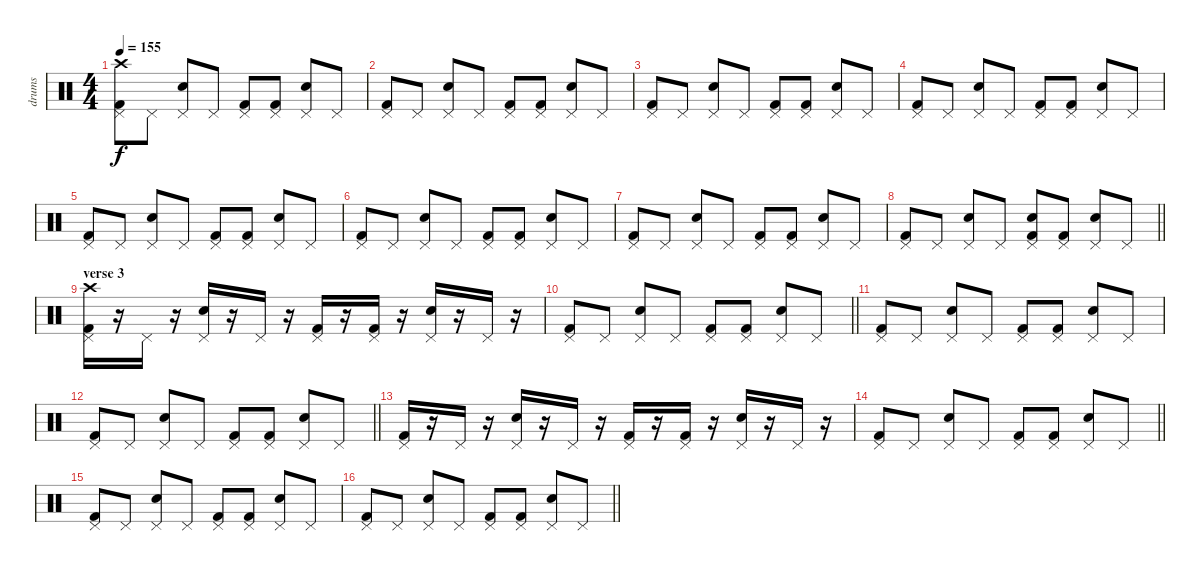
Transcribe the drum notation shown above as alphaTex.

\track ("drums" "drums") {instrument percussion}
\staff {score}
\articulation defaults
\ts (4 4)
\tempo 155
\clef neutral
\ks c
("Kick (hit) 2" "Pedal Hi-Hat (hit)" "Crash high (hit)").8{dy f} "Pedal Hi-Hat (hit)".8 ("Electric Snare (hit)" "Pedal Hi-Hat (hit)").8 "Pedal Hi-Hat (hit)".8 ("Kick (hit) 2" "Pedal Hi-Hat (hit)").8 ("Kick (hit) 2" "Pedal Hi-Hat (hit)").8 ("Electric Snare (hit)" "Pedal Hi-Hat (hit)").8 "Pedal Hi-Hat (hit)".8 |
("Kick (hit) 2" "Pedal Hi-Hat (hit)").8 "Pedal Hi-Hat (hit)".8 ("Electric Snare (hit)" "Pedal Hi-Hat (hit)").8 "Pedal Hi-Hat (hit)".8 ("Kick (hit) 2" "Pedal Hi-Hat (hit)").8 ("Kick (hit) 2" "Pedal Hi-Hat (hit)").8 ("Electric Snare (hit)" "Pedal Hi-Hat (hit)").8 "Pedal Hi-Hat (hit)".8 |
("Kick (hit) 2" "Pedal Hi-Hat (hit)").8 "Pedal Hi-Hat (hit)".8 ("Electric Snare (hit)" "Pedal Hi-Hat (hit)").8 "Pedal Hi-Hat (hit)".8 ("Kick (hit) 2" "Pedal Hi-Hat (hit)").8 ("Kick (hit) 2" "Pedal Hi-Hat (hit)").8 ("Electric Snare (hit)" "Pedal Hi-Hat (hit)").8 "Pedal Hi-Hat (hit)".8 |
("Kick (hit) 2" "Pedal Hi-Hat (hit)").8 "Pedal Hi-Hat (hit)".8 ("Electric Snare (hit)" "Pedal Hi-Hat (hit)").8 "Pedal Hi-Hat (hit)".8 ("Kick (hit) 2" "Pedal Hi-Hat (hit)").8 ("Kick (hit) 2" "Pedal Hi-Hat (hit)").8 ("Electric Snare (hit)" "Pedal Hi-Hat (hit)").8 "Pedal Hi-Hat (hit)".8 |
("Kick (hit) 2" "Pedal Hi-Hat (hit)").8 "Pedal Hi-Hat (hit)".8 ("Electric Snare (hit)" "Pedal Hi-Hat (hit)").8 "Pedal Hi-Hat (hit)".8 ("Kick (hit) 2" "Pedal Hi-Hat (hit)").8 ("Kick (hit) 2" "Pedal Hi-Hat (hit)").8 ("Electric Snare (hit)" "Pedal Hi-Hat (hit)").8 "Pedal Hi-Hat (hit)".8 |
("Kick (hit) 2" "Pedal Hi-Hat (hit)").8 "Pedal Hi-Hat (hit)".8 ("Electric Snare (hit)" "Pedal Hi-Hat (hit)").8 "Pedal Hi-Hat (hit)".8 ("Kick (hit) 2" "Pedal Hi-Hat (hit)").8 ("Kick (hit) 2" "Pedal Hi-Hat (hit)").8 ("Electric Snare (hit)" "Pedal Hi-Hat (hit)").8 "Pedal Hi-Hat (hit)".8 |
("Kick (hit) 2" "Pedal Hi-Hat (hit)").8 "Pedal Hi-Hat (hit)".8 ("Electric Snare (hit)" "Pedal Hi-Hat (hit)").8 "Pedal Hi-Hat (hit)".8 ("Kick (hit) 2" "Pedal Hi-Hat (hit)").8 ("Kick (hit) 2" "Pedal Hi-Hat (hit)").8 ("Electric Snare (hit)" "Pedal Hi-Hat (hit)").8 "Pedal Hi-Hat (hit)".8 |
\barLineRight lightlight
("Kick (hit) 2" "Pedal Hi-Hat (hit)").8 "Pedal Hi-Hat (hit)".8 ("Electric Snare (hit)" "Pedal Hi-Hat (hit)").8 "Pedal Hi-Hat (hit)".8 ("Kick (hit) 2" "Electric Snare (hit)" "Pedal Hi-Hat (hit)").8 ("Kick (hit) 2" "Pedal Hi-Hat (hit)").8 ("Electric Snare (hit)" "Pedal Hi-Hat (hit)").8 "Pedal Hi-Hat (hit)".8 |
\section ("" "verse 3")
("Kick (hit) 2" "Pedal Hi-Hat (hit)" "Crash high (hit)").16 r.16 "Pedal Hi-Hat (hit)".16 r.16 ("Electric Snare (hit)" "Pedal Hi-Hat (hit)").16 r.16 "Pedal Hi-Hat (hit)".16 r.16 ("Kick (hit) 2" "Pedal Hi-Hat (hit)").16 r.16 ("Kick (hit) 2" "Pedal Hi-Hat (hit)").16 r.16 ("Electric Snare (hit)" "Pedal Hi-Hat (hit)").16 r.16 "Pedal Hi-Hat (hit)".16 r.16 |
\barLineRight lightlight
("Kick (hit) 2" "Pedal Hi-Hat (hit)").8 "Pedal Hi-Hat (hit)".8 ("Electric Snare (hit)" "Pedal Hi-Hat (hit)").8 "Pedal Hi-Hat (hit)".8 ("Kick (hit) 2" "Pedal Hi-Hat (hit)").8 ("Kick (hit) 2" "Pedal Hi-Hat (hit)").8 ("Electric Snare (hit)" "Pedal Hi-Hat (hit)").8 "Pedal Hi-Hat (hit)".8 |
("Kick (hit) 2" "Pedal Hi-Hat (hit)").8 "Pedal Hi-Hat (hit)".8 ("Electric Snare (hit)" "Pedal Hi-Hat (hit)").8 "Pedal Hi-Hat (hit)".8 ("Kick (hit) 2" "Pedal Hi-Hat (hit)").8 ("Kick (hit) 2" "Pedal Hi-Hat (hit)").8 ("Electric Snare (hit)" "Pedal Hi-Hat (hit)").8 "Pedal Hi-Hat (hit)".8 |
\barLineRight lightlight
("Kick (hit) 2" "Pedal Hi-Hat (hit)").8 "Pedal Hi-Hat (hit)".8 ("Electric Snare (hit)" "Pedal Hi-Hat (hit)").8 "Pedal Hi-Hat (hit)".8 ("Kick (hit) 2" "Pedal Hi-Hat (hit)").8 ("Kick (hit) 2" "Pedal Hi-Hat (hit)").8 ("Electric Snare (hit)" "Pedal Hi-Hat (hit)").8 "Pedal Hi-Hat (hit)".8 |
("Kick (hit) 2" "Pedal Hi-Hat (hit)").16 r.16 "Pedal Hi-Hat (hit)".16 r.16 ("Electric Snare (hit)" "Pedal Hi-Hat (hit)").16 r.16 "Pedal Hi-Hat (hit)".16 r.16 ("Kick (hit) 2" "Pedal Hi-Hat (hit)").16 r.16 ("Kick (hit) 2" "Pedal Hi-Hat (hit)").16 r.16 ("Electric Snare (hit)" "Pedal Hi-Hat (hit)").16 r.16 "Pedal Hi-Hat (hit)".16 r.16 |
\barLineRight lightlight
("Kick (hit) 2" "Pedal Hi-Hat (hit)").8 "Pedal Hi-Hat (hit)".8 ("Electric Snare (hit)" "Pedal Hi-Hat (hit)").8 "Pedal Hi-Hat (hit)".8 ("Kick (hit) 2" "Pedal Hi-Hat (hit)").8 ("Kick (hit) 2" "Pedal Hi-Hat (hit)").8 ("Electric Snare (hit)" "Pedal Hi-Hat (hit)").8 "Pedal Hi-Hat (hit)".8 |
("Kick (hit) 2" "Pedal Hi-Hat (hit)").8 "Pedal Hi-Hat (hit)".8 ("Electric Snare (hit)" "Pedal Hi-Hat (hit)").8 "Pedal Hi-Hat (hit)".8 ("Kick (hit) 2" "Pedal Hi-Hat (hit)").8 ("Kick (hit) 2" "Pedal Hi-Hat (hit)").8 ("Electric Snare (hit)" "Pedal Hi-Hat (hit)").8 "Pedal Hi-Hat (hit)".8 |
\barLineRight lightlight
("Kick (hit) 2" "Pedal Hi-Hat (hit)").8 "Pedal Hi-Hat (hit)".8 ("Electric Snare (hit)" "Pedal Hi-Hat (hit)").8 "Pedal Hi-Hat (hit)".8 ("Kick (hit) 2" "Pedal Hi-Hat (hit)").8 ("Kick (hit) 2" "Pedal Hi-Hat (hit)").8 ("Electric Snare (hit)" "Pedal Hi-Hat (hit)").8 "Pedal Hi-Hat (hit)".8
